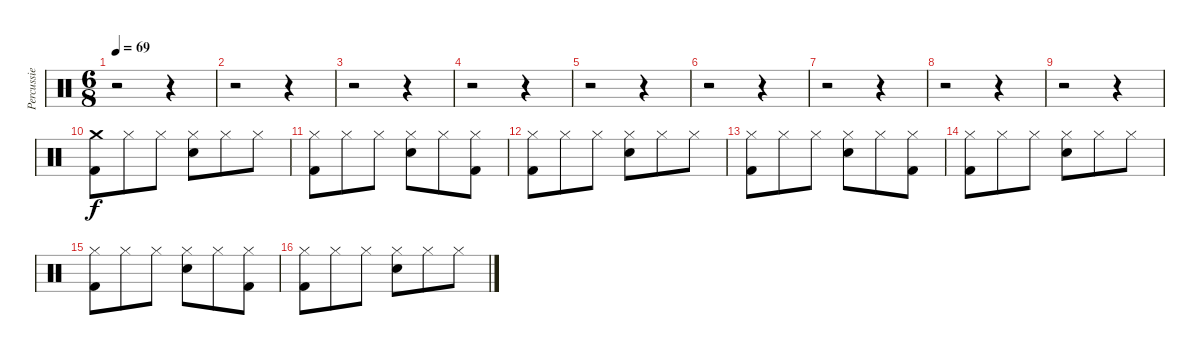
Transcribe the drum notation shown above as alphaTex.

\track ("Percussie" "Percussie") {instrument percussion}
\staff {score}
\articulation defaults
\ts (6 8)
\tempo 69
\clef neutral
\ks c
r.2{dy f} r.4 |
r.2 r.4 |
r.2 r.4 |
r.2 r.4 |
r.2 r.4 |
r.2 r.4 |
r.2 r.4 |
r.2 r.4 |
r.2 r.4 |
("Crash medium (hit)" "Kick (hit) 2").8 "Hi-Hat (closed)".8 "Hi-Hat (closed)".8 ("Hi-Hat (closed)" "Snare (hit) 2").8 "Hi-Hat (closed)".8 "Hi-Hat (closed)".8 |
("Hi-Hat (closed)" "Kick (hit) 2").8 "Hi-Hat (closed)".8 "Hi-Hat (closed)".8 ("Hi-Hat (closed)" "Snare (hit) 2").8 "Hi-Hat (closed)".8 ("Hi-Hat (closed)" "Kick (hit) 2").8 |
("Hi-Hat (closed)" "Kick (hit) 2").8 "Hi-Hat (closed)".8 "Hi-Hat (closed)".8 ("Hi-Hat (closed)" "Snare (hit) 2").8 "Hi-Hat (closed)".8 "Hi-Hat (closed)".8 |
("Hi-Hat (closed)" "Kick (hit) 2").8 "Hi-Hat (closed)".8 "Hi-Hat (closed)".8 ("Hi-Hat (closed)" "Snare (hit) 2").8 "Hi-Hat (closed)".8 ("Hi-Hat (closed)" "Kick (hit) 2").8 |
("Hi-Hat (closed)" "Kick (hit) 2").8 "Hi-Hat (closed)".8 "Hi-Hat (closed)".8 ("Hi-Hat (closed)" "Snare (hit) 2").8 "Hi-Hat (closed)".8 "Hi-Hat (closed)".8 |
("Hi-Hat (closed)" "Kick (hit) 2").8 "Hi-Hat (closed)".8 "Hi-Hat (closed)".8 ("Hi-Hat (closed)" "Snare (hit) 2").8 "Hi-Hat (closed)".8 ("Hi-Hat (closed)" "Kick (hit) 2").8 |
("Hi-Hat (closed)" "Kick (hit) 2").8 "Hi-Hat (closed)".8 "Hi-Hat (closed)".8 ("Hi-Hat (closed)" "Snare (hit) 2").8 "Hi-Hat (closed)".8 "Hi-Hat (closed)".8
